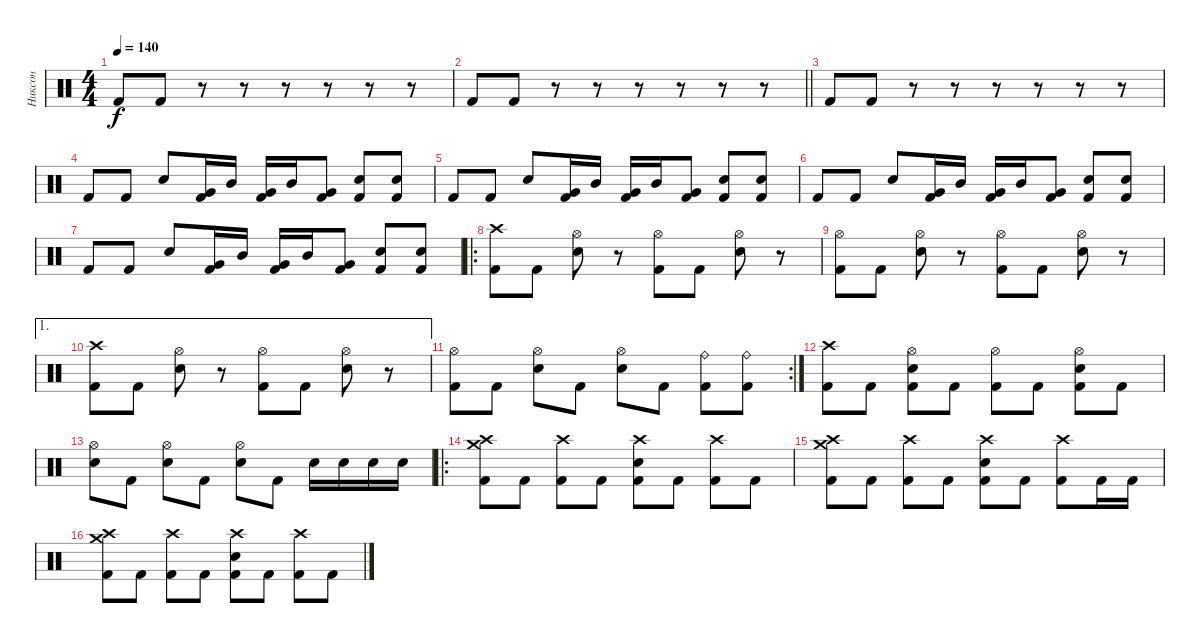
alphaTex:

\track ("Никсон" "Никсон") {instrument percussion}
\staff {score}
\articulation defaults
\ts (4 4)
\tempo 140
\clef neutral
\ks c "Kick (hit) 2".8{dy f} "Kick (hit) 2".8
r.8 r.8 r.8 r.8 r.8 r.8 |
\barLineRight lightlight "Kick (hit) 2".8 "Kick (hit) 2".8
r.8 r.8 r.8 r.8 r.8 r.8 |
"Kick (hit) 2".8 "Kick (hit) 2".8 r.8 r.8 r.8 r.8 r.8 r.8 |
"Kick (hit) 2".8 "Kick (hit) 2".8 "Snare (hit) 2".8 ("Very Low Tom (hit)" "Kick (hit) 2").16 "Mid Tom (hit)".16 ("Very Low Tom (hit)" "Kick (hit) 2").16 "Mid Tom (hit)".16 ("Very Low Tom (hit)" "Kick (hit) 2").8 ("Snare (hit) 2" "Kick (hit) 2").8 ("Snare (hit) 2" "Kick (hit) 2").8 |
"Kick (hit) 2".8 "Kick (hit) 2".8 "Snare (hit) 2".8 ("Very Low Tom (hit)" "Kick (hit) 2").16 "Mid Tom (hit)".16 ("Very Low Tom (hit)" "Kick (hit) 2").16 "Mid Tom (hit)".16 ("Very Low Tom (hit)" "Kick (hit) 2").8 ("Snare (hit) 2" "Kick (hit) 2").8 ("Snare (hit) 2" "Kick (hit) 2").8 |
"Kick (hit) 2".8 "Kick (hit) 2".8 "Snare (hit) 2".8 ("Very Low Tom (hit)" "Kick (hit) 2").16 "Mid Tom (hit)".16 ("Very Low Tom (hit)" "Kick (hit) 2").16 "Mid Tom (hit)".16 ("Very Low Tom (hit)" "Kick (hit) 2").8 ("Snare (hit) 2" "Kick (hit) 2").8 ("Snare (hit) 2" "Kick (hit) 2").8 |
"Kick (hit) 2".8 "Kick (hit) 2".8 "Snare (hit) 2".8 ("Very Low Tom (hit)" "Kick (hit) 2").16 "Mid Tom (hit)".16 ("Very Low Tom (hit)" "Kick (hit) 2").16 "Mid Tom (hit)".16 ("Very Low Tom (hit)" "Kick (hit) 2").8 ("Snare (hit) 2" "Kick (hit) 2").8 ("Snare (hit) 2" "Kick (hit) 2").8 |
\ro
("Crash high (hit)" "Kick (hit) 2").8 "Kick (hit) 2".8 ("Hi-Hat (open)" "Snare (hit) 2").8 r.8 ("Hi-Hat (open)" "Kick (hit) 2").8 "Kick (hit) 2".8 ("Hi-Hat (open)" "Snare (hit) 2").8 r.8 |
("Hi-Hat (open)" "Kick (hit) 2").8 "Kick (hit) 2".8 ("Hi-Hat (open)" "Snare (hit) 2").8 r.8 ("Hi-Hat (open)" "Kick (hit) 2").8 "Kick (hit) 2".8 ("Hi-Hat (open)" "Snare (hit) 2").8 r.8 |
\ae 1
("Crash high (hit)" "Kick (hit) 2").8 "Kick (hit) 2".8 ("Hi-Hat (open)" "Snare (hit) 2").8 r.8 ("Hi-Hat (open)" "Kick (hit) 2").8 "Kick (hit) 2".8 ("Hi-Hat (open)" "Snare (hit) 2").8 r.8 |
\rc 2
("Hi-Hat (open)" "Kick (hit) 2").8 "Kick (hit) 2".8 ("Hi-Hat (open)" "Snare (hit) 2").8 "Kick (hit) 2".8 ("Hi-Hat (open)" "Snare (hit) 2").8 "Kick (hit) 2".8 ("Ride (bell)" "Kick (hit) 2").8 ("Ride (bell)" "Kick (hit) 2").8 |
("Crash high (hit)" "Kick (hit) 2").8 "Kick (hit) 2".8 ("Hi-Hat (open)" "Snare (hit) 2" "Kick (hit) 2").8 "Kick (hit) 2".8 ("Hi-Hat (open)" "Kick (hit) 2").8 "Kick (hit) 2".8 ("Hi-Hat (open)" "Snare (hit) 2" "Kick (hit) 2").8 "Kick (hit) 2".8 |
("Hi-Hat (open)" "Snare (hit) 2").8 "Kick (hit) 2".8 ("Hi-Hat (open)" "Snare (hit) 2").8 "Kick (hit) 2".8 ("Hi-Hat (open)" "Snare (hit) 2").8 "Kick (hit) 2".8 "Snare (hit) 2".16 "Snare (hit) 2".16 "Snare (hit) 2".16 "Snare (hit) 2".16 |
\ro
("Crash medium (hit)" "Crash high (hit)" "Kick (hit) 2").8 "Kick (hit) 2".8 ("Crash high (hit)" "Kick (hit) 2").8 "Kick (hit) 2".8 ("Crash high (hit)" "Snare (hit) 2" "Kick (hit) 2").8 "Kick (hit) 2".8 ("Crash high (hit)" "Kick (hit) 2").8 "Kick (hit) 2".8 |
("Crash medium (hit)" "Crash high (hit)" "Kick (hit) 2").8 "Kick (hit) 2".8 ("Crash high (hit)" "Kick (hit) 2").8 "Kick (hit) 2".8 ("Crash high (hit)" "Snare (hit) 2" "Kick (hit) 2").8 "Kick (hit) 2".8 ("Crash high (hit)" "Kick (hit) 2").8 "Kick (hit) 2".16 "Kick (hit) 2".16 |
("Crash medium (hit)" "Crash high (hit)" "Kick (hit) 2").8 "Kick (hit) 2".8 ("Crash high (hit)" "Kick (hit) 2").8 "Kick (hit) 2".8 ("Crash high (hit)" "Snare (hit) 2" "Kick (hit) 2").8 "Kick (hit) 2".8 ("Crash high (hit)" "Kick (hit) 2").8 "Kick (hit) 2".8
